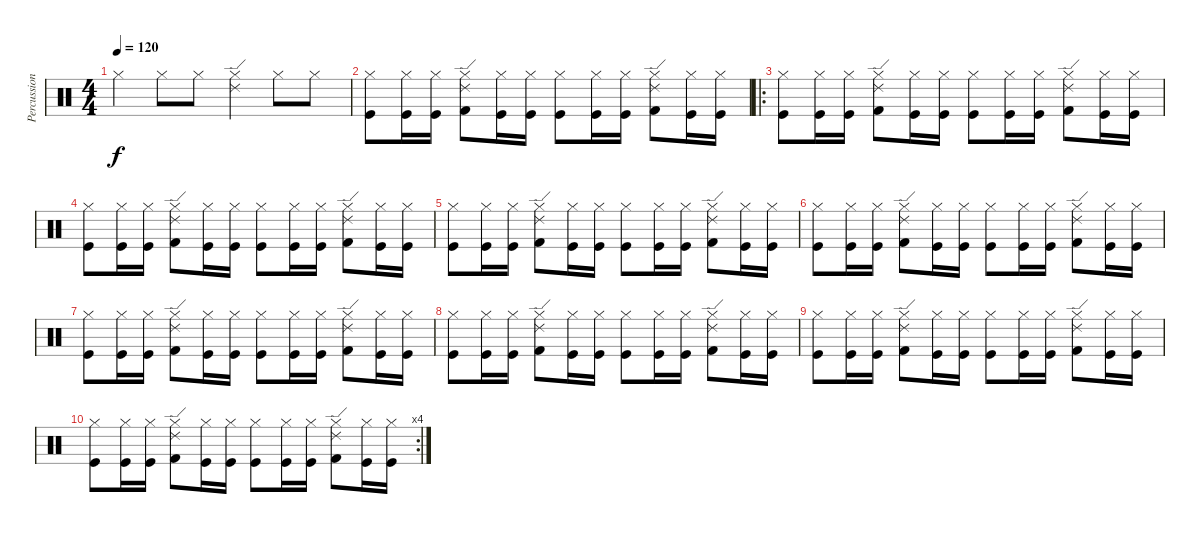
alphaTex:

\track ("Percussions" "Percussion") {instrument percussion}
\staff {score}
\articulation defaults
\ts (4 4)
\tempo 120
\clef neutral
\ks c "Hi-Hat (closed)".4{dy f} "Hi-Hat (closed)".8 "Hi-Hat (closed)".8
("Hi-Hat (closed)" "Ride (edge) 2").4 "Hi-Hat (closed)".8 "Hi-Hat (closed)".8 |
("Hi-Hat (closed)" "Kick (hit)").8 ("Hi-Hat (closed)" "Kick (hit)").16 ("Hi-Hat (closed)" "Kick (hit)").16 ("Hi-Hat (closed)" "Ride (edge) 2" "Kick (hit) 2").8 ("Hi-Hat (closed)" "Kick (hit)").16 ("Hi-Hat (closed)" "Kick (hit)").16 ("Hi-Hat (closed)" "Kick (hit)").8 ("Hi-Hat (closed)" "Kick (hit)").16 ("Hi-Hat (closed)" "Kick (hit)").16 ("Hi-Hat (closed)" "Ride (edge) 2" "Kick (hit) 2").8 ("Hi-Hat (closed)" "Kick (hit)").16 ("Hi-Hat (closed)" "Kick (hit)").16 |
\ro
("Hi-Hat (closed)" "Kick (hit)").8 ("Hi-Hat (closed)" "Kick (hit)").16 ("Hi-Hat (closed)" "Kick (hit)").16 ("Hi-Hat (closed)" "Ride (edge) 2" "Kick (hit) 2").8 ("Hi-Hat (closed)" "Kick (hit)").16 ("Hi-Hat (closed)" "Kick (hit)").16 ("Hi-Hat (closed)" "Kick (hit)").8 ("Hi-Hat (closed)" "Kick (hit)").16 ("Hi-Hat (closed)" "Kick (hit)").16 ("Hi-Hat (closed)" "Ride (edge) 2" "Kick (hit) 2").8 ("Hi-Hat (closed)" "Kick (hit)").16 ("Hi-Hat (closed)" "Kick (hit)").16 |
("Hi-Hat (closed)" "Kick (hit)").8 ("Hi-Hat (closed)" "Kick (hit)").16 ("Hi-Hat (closed)" "Kick (hit)").16 ("Hi-Hat (closed)" "Ride (edge) 2" "Kick (hit) 2").8 ("Hi-Hat (closed)" "Kick (hit)").16 ("Hi-Hat (closed)" "Kick (hit)").16 ("Hi-Hat (closed)" "Kick (hit)").8 ("Hi-Hat (closed)" "Kick (hit)").16 ("Hi-Hat (closed)" "Kick (hit)").16 ("Hi-Hat (closed)" "Ride (edge) 2" "Kick (hit) 2").8 ("Hi-Hat (closed)" "Kick (hit)").16 ("Hi-Hat (closed)" "Kick (hit)").16 |
("Hi-Hat (closed)" "Kick (hit)").8 ("Hi-Hat (closed)" "Kick (hit)").16 ("Hi-Hat (closed)" "Kick (hit)").16 ("Hi-Hat (closed)" "Ride (edge) 2" "Kick (hit) 2").8 ("Hi-Hat (closed)" "Kick (hit)").16 ("Hi-Hat (closed)" "Kick (hit)").16 ("Hi-Hat (closed)" "Kick (hit)").8 ("Hi-Hat (closed)" "Kick (hit)").16 ("Hi-Hat (closed)" "Kick (hit)").16 ("Hi-Hat (closed)" "Ride (edge) 2" "Kick (hit) 2").8 ("Hi-Hat (closed)" "Kick (hit)").16 ("Hi-Hat (closed)" "Kick (hit)").16 |
("Hi-Hat (closed)" "Kick (hit)").8 ("Hi-Hat (closed)" "Kick (hit)").16 ("Hi-Hat (closed)" "Kick (hit)").16 ("Hi-Hat (closed)" "Ride (edge) 2" "Kick (hit) 2").8 ("Hi-Hat (closed)" "Kick (hit)").16 ("Hi-Hat (closed)" "Kick (hit)").16 ("Hi-Hat (closed)" "Kick (hit)").8 ("Hi-Hat (closed)" "Kick (hit)").16 ("Hi-Hat (closed)" "Kick (hit)").16 ("Hi-Hat (closed)" "Ride (edge) 2" "Kick (hit) 2").8 ("Hi-Hat (closed)" "Kick (hit)").16 ("Hi-Hat (closed)" "Kick (hit)").16 |
("Hi-Hat (closed)" "Kick (hit)").8 ("Hi-Hat (closed)" "Kick (hit)").16 ("Hi-Hat (closed)" "Kick (hit)").16 ("Hi-Hat (closed)" "Ride (edge) 2" "Kick (hit) 2").8 ("Hi-Hat (closed)" "Kick (hit)").16 ("Hi-Hat (closed)" "Kick (hit)").16 ("Hi-Hat (closed)" "Kick (hit)").8 ("Hi-Hat (closed)" "Kick (hit)").16 ("Hi-Hat (closed)" "Kick (hit)").16 ("Hi-Hat (closed)" "Ride (edge) 2" "Kick (hit) 2").8 ("Hi-Hat (closed)" "Kick (hit)").16 ("Hi-Hat (closed)" "Kick (hit)").16 |
("Hi-Hat (closed)" "Kick (hit)").8 ("Hi-Hat (closed)" "Kick (hit)").16 ("Hi-Hat (closed)" "Kick (hit)").16 ("Hi-Hat (closed)" "Ride (edge) 2" "Kick (hit) 2").8 ("Hi-Hat (closed)" "Kick (hit)").16 ("Hi-Hat (closed)" "Kick (hit)").16 ("Hi-Hat (closed)" "Kick (hit)").8 ("Hi-Hat (closed)" "Kick (hit)").16 ("Hi-Hat (closed)" "Kick (hit)").16 ("Hi-Hat (closed)" "Ride (edge) 2" "Kick (hit) 2").8 ("Hi-Hat (closed)" "Kick (hit)").16 ("Hi-Hat (closed)" "Kick (hit)").16 |
("Hi-Hat (closed)" "Kick (hit)").8 ("Hi-Hat (closed)" "Kick (hit)").16 ("Hi-Hat (closed)" "Kick (hit)").16 ("Hi-Hat (closed)" "Ride (edge) 2" "Kick (hit) 2").8 ("Hi-Hat (closed)" "Kick (hit)").16 ("Hi-Hat (closed)" "Kick (hit)").16 ("Hi-Hat (closed)" "Kick (hit)").8 ("Hi-Hat (closed)" "Kick (hit)").16 ("Hi-Hat (closed)" "Kick (hit)").16 ("Hi-Hat (closed)" "Ride (edge) 2" "Kick (hit) 2").8 ("Hi-Hat (closed)" "Kick (hit)").16 ("Hi-Hat (closed)" "Kick (hit)").16 |
\rc 4
("Hi-Hat (closed)" "Kick (hit)").8 ("Hi-Hat (closed)" "Kick (hit)").16 ("Hi-Hat (closed)" "Kick (hit)").16 ("Hi-Hat (closed)" "Ride (edge) 2" "Kick (hit) 2").8 ("Hi-Hat (closed)" "Kick (hit)").16 ("Hi-Hat (closed)" "Kick (hit)").16 ("Hi-Hat (closed)" "Kick (hit)").8 ("Hi-Hat (closed)" "Kick (hit)").16 ("Hi-Hat (closed)" "Kick (hit)").16 ("Hi-Hat (closed)" "Ride (edge) 2" "Kick (hit) 2").8 ("Hi-Hat (closed)" "Kick (hit)").16 ("Hi-Hat (closed)" "Kick (hit)").16
